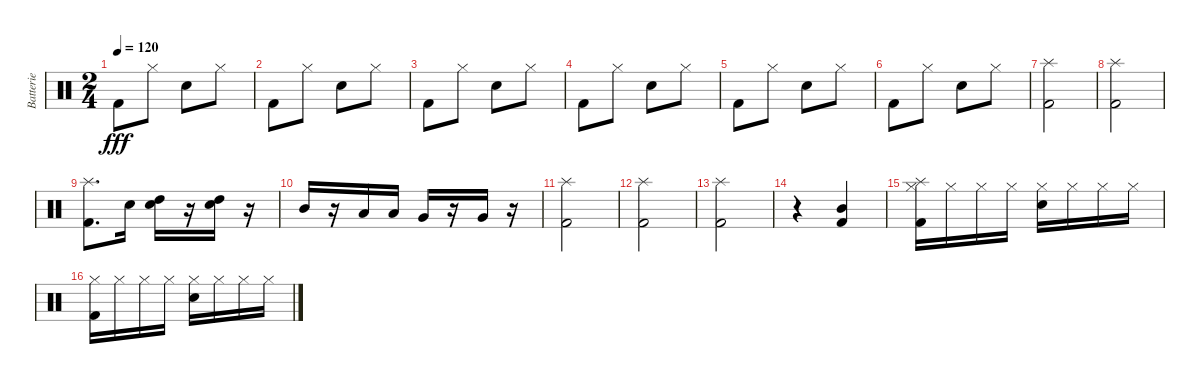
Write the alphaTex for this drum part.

\track ("Batterie" "Batterie") {instrument percussion}
\staff {score}
\articulation defaults
\ts (2 4)
\tempo 120
\clef neutral
\ks c "Kick (hit) 2".8{dy fff} "Hi-Hat (closed)".8 "Electric Snare (hit)".8 "Hi-Hat (closed)".8
|
"Kick (hit) 2".8 "Hi-Hat (closed)".8 "Electric Snare (hit)".8 "Hi-Hat (closed)".8 |
"Kick (hit) 2".8 "Hi-Hat (closed)".8 "Electric Snare (hit)".8 "Hi-Hat (closed)".8 |
"Kick (hit) 2".8 "Hi-Hat (closed)".8 "Electric Snare (hit)".8 "Hi-Hat (closed)".8 |
"Kick (hit) 2".8 "Hi-Hat (closed)".8 "Electric Snare (hit)".8 "Hi-Hat (closed)".8 |
"Kick (hit) 2".8 "Hi-Hat (closed)".8 "Electric Snare (hit)".8 "Hi-Hat (closed)".8 |
("Kick (hit) 2" "Splash (hit)").2 |
("Kick (hit) 2" "Splash (hit)").2 |
("Kick (hit) 2" "Splash (hit)").8{d} "Electric Snare (hit)".16 ("Electric Snare (hit)" "High Tom (hit)").16 r.16 ("Electric Snare (hit)" "High Tom (hit)").16 r.16 |
"Mid Tom (hit)".16 r.16 "Low Tom (hit)".16 "Low Tom (hit)".16 "Very Low Tom (hit)".16 r.16 "Very Low Tom (hit)".16 r.16 |
("Kick (hit) 2" "Splash (hit)").2 |
("Kick (hit) 2" "Splash (hit)").2 |
("Kick (hit) 2" "Splash (hit)").2 |
r.4 ("Kick (hit) 2" "Mid Tom (hit)").4 |
("Kick (hit) 2" "Hi-Hat (closed)" "Splash (hit)").16 "Hi-Hat (closed)".16 "Hi-Hat (closed)".16 "Hi-Hat (closed)".16 ("Hi-Hat (closed)" "Electric Snare (hit)").16 "Hi-Hat (closed)".16 "Hi-Hat (closed)".16 "Hi-Hat (closed)".16 |
("Kick (hit) 2" "Hi-Hat (closed)").16 "Hi-Hat (closed)".16 "Hi-Hat (closed)".16 "Hi-Hat (closed)".16 ("Hi-Hat (closed)" "Electric Snare (hit)").16 "Hi-Hat (closed)".16 "Hi-Hat (closed)".16 "Hi-Hat (closed)".16
